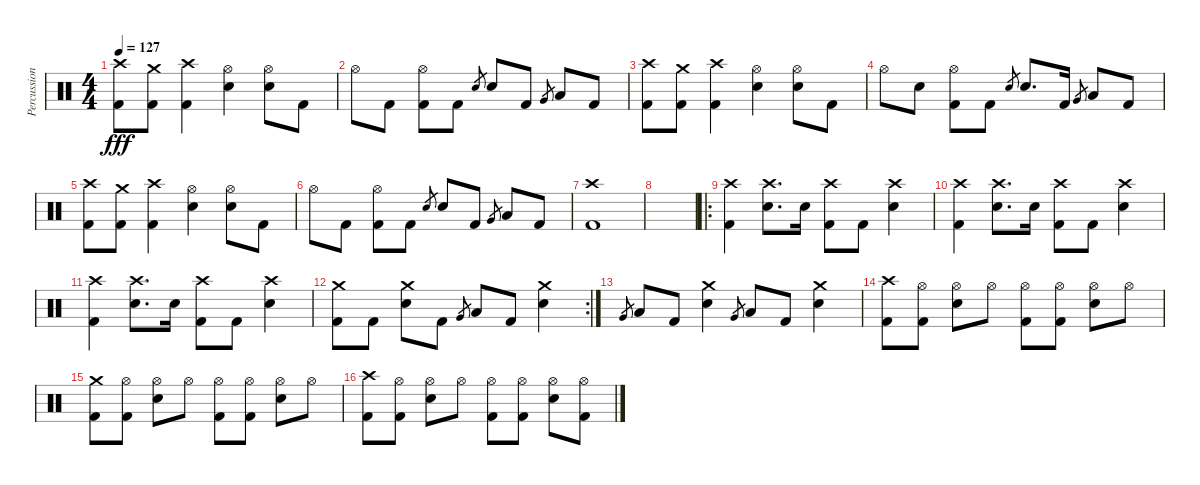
\track ("Percussion" "Percussion") {instrument percussion}
\staff {score}
\articulation defaults
\ts (4 4)
\tempo 127
\clef neutral
\ks c
("Crash high (hit)" "Kick (hit) 2").8{dy fff} ("Crash medium (hit)" "Kick (hit) 2").8 ("Crash high (hit)" "Kick (hit) 2").4 ("Hi-Hat (open)" "Snare (hit) 2").4 ("Hi-Hat (open)" "Snare (hit) 2").8 "Kick (hit) 2".8 |
"Hi-Hat (open)".8 "Kick (hit) 2".8 ("Hi-Hat (open)" "Kick (hit) 2").8 "Kick (hit) 2".8 "Snare (hit) 2".8{gr} "Snare (hit) 2".8 "Kick (hit) 2".8 "Very Low Tom (hit)".8{gr} "Low Tom (hit)".8 "Kick (hit) 2".8 |
("Crash high (hit)" "Kick (hit) 2").8 ("Crash medium (hit)" "Kick (hit) 2").8 ("Crash high (hit)" "Kick (hit) 2").4 ("Hi-Hat (open)" "Snare (hit) 2").4 ("Hi-Hat (open)" "Snare (hit) 2").8 "Kick (hit) 2".8 |
"Hi-Hat (open)".8 "Snare (hit) 2".8 ("Hi-Hat (open)" "Kick (hit) 2").8 "Kick (hit) 2".8 "Snare (hit) 2".8{gr} "Snare (hit) 2".8{d} "Kick (hit) 2".16 "Very Low Tom (hit)".8{gr} "Low Tom (hit)".8 "Kick (hit) 2".8 |
("Crash high (hit)" "Kick (hit) 2").8 ("Crash medium (hit)" "Kick (hit) 2").8 ("Crash high (hit)" "Kick (hit) 2").4 ("Hi-Hat (open)" "Snare (hit) 2").4 ("Hi-Hat (open)" "Snare (hit) 2").8 "Kick (hit) 2".8 |
"Hi-Hat (open)".8 "Kick (hit) 2".8 ("Hi-Hat (open)" "Kick (hit) 2").8 "Kick (hit) 2".8 "Snare (hit) 2".8{gr} "Snare (hit) 2".8 "Kick (hit) 2".8 "Very Low Tom (hit)".8{gr} "Low Tom (hit)".8 "Kick (hit) 2".8 |
("Crash high (hit)" "Kick (hit) 2").1 |
|
\ro
("Crash high (hit)" "Kick (hit) 2").4 ("Crash high (hit)" "Snare (hit) 2").8{d} "Snare (hit) 2".16 ("Crash high (hit)" "Kick (hit) 2").8 "Kick (hit) 2".8 ("Crash high (hit)" "Snare (hit) 2").4 |
("Crash high (hit)" "Kick (hit) 2").4 ("Crash high (hit)" "Snare (hit) 2").8{d} "Snare (hit) 2".16 ("Crash high (hit)" "Kick (hit) 2").8 "Kick (hit) 2".8 ("Crash high (hit)" "Snare (hit) 2").4 |
("Crash high (hit)" "Kick (hit) 2").4 ("Crash high (hit)" "Snare (hit) 2").8{d} "Snare (hit) 2".16 ("Crash high (hit)" "Kick (hit) 2").8 "Kick (hit) 2".8 ("Crash high (hit)" "Snare (hit) 2").4 |
\rc 2
("Crash medium (hit)" "Kick (hit) 2").8 "Kick (hit) 2".8 ("Crash medium (hit)" "Snare (hit) 2").8 "Kick (hit) 2".8 "Very Low Tom (hit)".8{gr} "Low Tom (hit)".8 "Kick (hit) 2".8 ("Crash medium (hit)" "Snare (hit) 2").4 |
"Very Low Tom (hit)".8{gr} "Low Tom (hit)".8 "Kick (hit) 2".8 ("Crash medium (hit)" "Snare (hit) 2").4 "Very Low Tom (hit)".8{gr} "Low Tom (hit)".8 "Kick (hit) 2".8 ("Crash medium (hit)" "Snare (hit) 2").4 |
("Crash high (hit)" "Kick (hit) 2").8 ("Hi-Hat (open)" "Kick (hit) 2").8 ("Hi-Hat (open)" "Snare (hit) 2").8 "Hi-Hat (open)".8 ("Hi-Hat (open)" "Kick (hit) 2").8 ("Hi-Hat (open)" "Kick (hit) 2").8 ("Hi-Hat (open)" "Snare (hit) 2").8 "Hi-Hat (open)".8 |
("Crash medium (hit)" "Kick (hit) 2").8 ("Hi-Hat (open)" "Kick (hit) 2").8 ("Hi-Hat (open)" "Snare (hit) 2").8 "Hi-Hat (open)".8 ("Hi-Hat (open)" "Kick (hit) 2").8 ("Hi-Hat (open)" "Kick (hit) 2").8 ("Hi-Hat (open)" "Snare (hit) 2").8 "Hi-Hat (open)".8 |
("Crash high (hit)" "Kick (hit) 2").8 ("Hi-Hat (open)" "Kick (hit) 2").8 ("Hi-Hat (open)" "Snare (hit) 2").8 "Hi-Hat (open)".8 ("Hi-Hat (open)" "Kick (hit) 2").8 ("Hi-Hat (open)" "Kick (hit) 2").8 ("Hi-Hat (open)" "Snare (hit) 2").8 ("Hi-Hat (open)" "Kick (hit) 2").8
